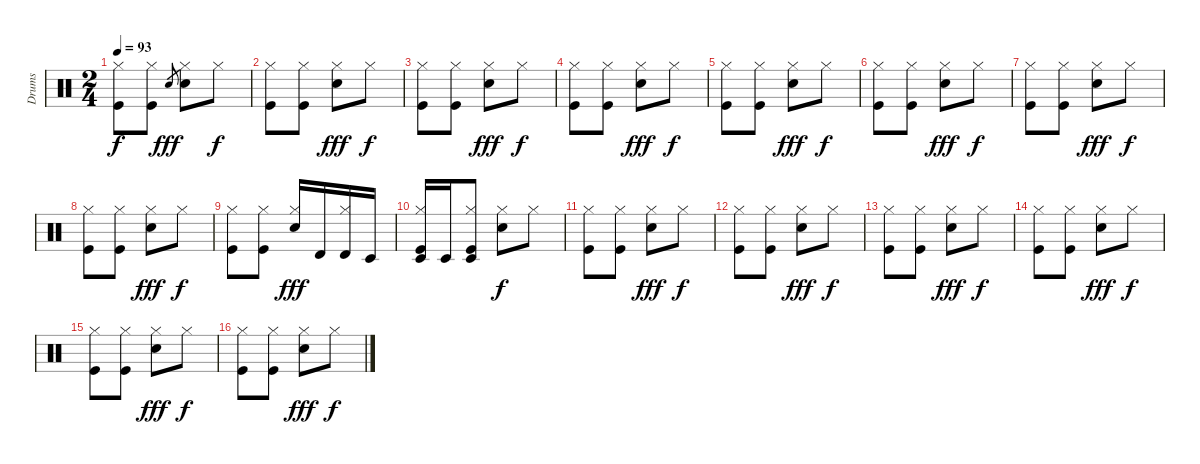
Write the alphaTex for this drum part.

\track ("Drums" "Drums") {instrument percussion}
\staff {score}
\articulation defaults
\ts (2 4)
\tempo 93
\clef neutral
\ks c
("Hi-Hat (closed)" "Kick (hit)").8{dy f} ("Hi-Hat (closed)" "Kick (hit)").8 "Snare (hit) 2".8{gr dy fff} ("Hi-Hat (closed)" "Snare (hit) 2").8 "Hi-Hat (closed)".8{dy f} |
("Hi-Hat (closed)" "Kick (hit)").8 ("Hi-Hat (closed)" "Kick (hit)").8 ("Hi-Hat (closed)" "Snare (hit) 2").8{dy fff} "Hi-Hat (closed)".8{dy f} |
("Hi-Hat (closed)" "Kick (hit)").8 ("Hi-Hat (closed)" "Kick (hit)").8 ("Hi-Hat (closed)" "Snare (hit) 2").8{dy fff} "Hi-Hat (closed)".8{dy f} |
("Hi-Hat (closed)" "Kick (hit)").8 ("Hi-Hat (closed)" "Kick (hit)").8 ("Hi-Hat (closed)" "Snare (hit) 2").8{dy fff} "Hi-Hat (closed)".8{dy f} |
("Hi-Hat (closed)" "Kick (hit)").8 ("Hi-Hat (closed)" "Kick (hit)").8 ("Hi-Hat (closed)" "Snare (hit) 2").8{dy fff} "Hi-Hat (closed)".8{dy f} |
("Hi-Hat (closed)" "Kick (hit)").8 ("Hi-Hat (closed)" "Kick (hit)").8 ("Hi-Hat (closed)" "Snare (hit) 2").8{dy fff} "Hi-Hat (closed)".8{dy f} |
("Hi-Hat (closed)" "Kick (hit)").8 ("Hi-Hat (closed)" "Kick (hit)").8 ("Hi-Hat (closed)" "Snare (hit) 2").8{dy fff} "Hi-Hat (closed)".8{dy f} |
("Hi-Hat (closed)" "Kick (hit)").8 ("Hi-Hat (closed)" "Kick (hit)").8 ("Hi-Hat (closed)" "Snare (hit) 2").8{dy fff} "Hi-Hat (closed)".8{dy f} |
("Hi-Hat (closed)" "Kick (hit)").8 ("Hi-Hat (closed)" "Kick (hit)").8 ("Hi-Hat (closed)" "Snare (hit) 2").16{dy fff} "Timbale high (hit)".16 ("Hi-Hat (closed)" "Timbale high (hit)").16 "Timbale low (hit)".16 |
("Hi-Hat (closed)" "Timbale low (hit)" "Kick (hit)").16 "Timbale low (hit)".16 ("Hi-Hat (closed)" "Timbale low (hit)" "Kick (hit)").8 ("Hi-Hat (closed)" "Snare (hit) 2").8{dy f} "Hi-Hat (closed)".8 |
("Hi-Hat (closed)" "Kick (hit)").8 ("Hi-Hat (closed)" "Kick (hit)").8 ("Hi-Hat (closed)" "Snare (hit) 2").8{dy fff} "Hi-Hat (closed)".8{dy f} |
("Hi-Hat (closed)" "Kick (hit)").8 ("Hi-Hat (closed)" "Kick (hit)").8 ("Hi-Hat (closed)" "Snare (hit) 2").8{dy fff} "Hi-Hat (closed)".8{dy f} |
("Hi-Hat (closed)" "Kick (hit)").8 ("Hi-Hat (closed)" "Kick (hit)").8 ("Hi-Hat (closed)" "Snare (hit) 2").8{dy fff} "Hi-Hat (closed)".8{dy f} |
("Hi-Hat (closed)" "Kick (hit)").8 ("Hi-Hat (closed)" "Kick (hit)").8 ("Hi-Hat (closed)" "Snare (hit) 2").8{dy fff} "Hi-Hat (closed)".8{dy f} |
("Hi-Hat (closed)" "Kick (hit)").8 ("Hi-Hat (closed)" "Kick (hit)").8 ("Hi-Hat (closed)" "Snare (hit) 2").8{dy fff} "Hi-Hat (closed)".8{dy f} |
("Hi-Hat (closed)" "Kick (hit)").8 ("Hi-Hat (closed)" "Kick (hit)").8 ("Hi-Hat (closed)" "Snare (hit) 2").8{dy fff} "Hi-Hat (closed)".8{dy f}
